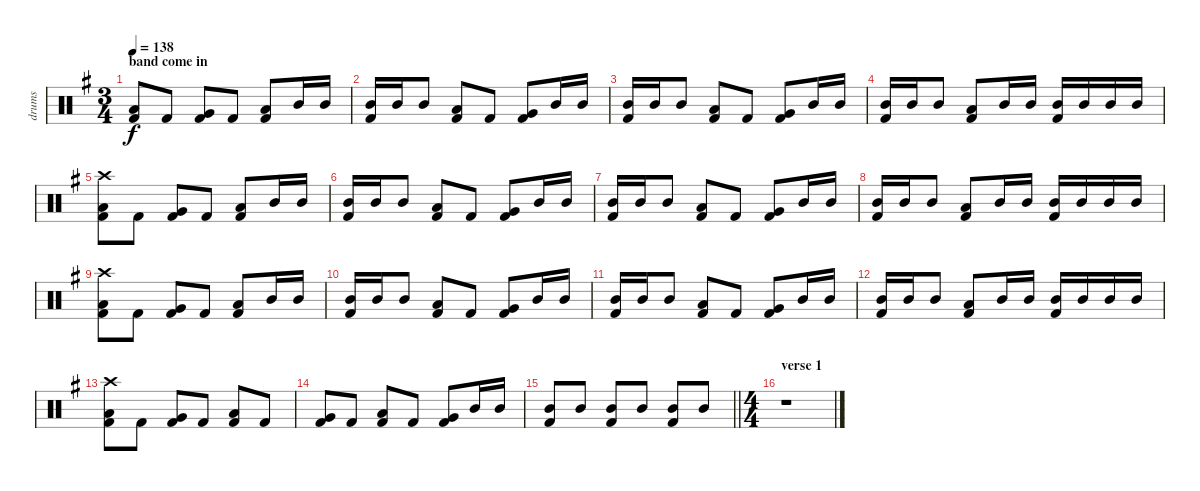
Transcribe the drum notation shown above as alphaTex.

\track ("drums" "drums") {instrument percussion}
\staff {score}
\articulation defaults
\ts (3 4)
\section ("" "band come in")
\tempo 138
\clef neutral
\ks eminor
("Low Tom (hit)" "Kick (hit) 2").8{dy f} "Kick (hit) 2".8 ("Very Low Tom (hit)" "Kick (hit) 2").8 "Kick (hit) 2".8 ("Low Tom (hit)" "Kick (hit) 2").8 "Mid Tom (hit)".16 "Mid Tom (hit)".16 |
("Mid Tom (hit)" "Kick (hit) 2").16 "Mid Tom (hit)".16 "Mid Tom (hit)".8 ("Low Tom (hit)" "Kick (hit) 2").8 "Kick (hit) 2".8 ("Very Low Tom (hit)" "Kick (hit) 2").8 "Mid Tom (hit)".16 "Mid Tom (hit)".16 |
("Mid Tom (hit)" "Kick (hit) 2").16 "Mid Tom (hit)".16 "Mid Tom (hit)".8 ("Low Tom (hit)" "Kick (hit) 2").8 "Kick (hit) 2".8 ("Very Low Tom (hit)" "Kick (hit) 2").8 "Mid Tom (hit)".16 "Mid Tom (hit)".16 |
("Mid Tom (hit)" "Kick (hit) 2").16 "Mid Tom (hit)".16 "Mid Tom (hit)".8 ("Low Tom (hit)" "Kick (hit) 2").8 "Mid Tom (hit)".16 "Mid Tom (hit)".16 ("Mid Tom (hit)" "Kick (hit) 2").16 "Mid Tom (hit)".16 "Mid Tom (hit)".16 "Mid Tom (hit)".16 |
("Crash high (hit)" "Low Tom (hit)" "Kick (hit) 2").8 "Kick (hit) 2".8 ("Very Low Tom (hit)" "Kick (hit) 2").8 "Kick (hit) 2".8 ("Low Tom (hit)" "Kick (hit) 2").8 "Mid Tom (hit)".16 "Mid Tom (hit)".16 |
("Mid Tom (hit)" "Kick (hit) 2").16 "Mid Tom (hit)".16 "Mid Tom (hit)".8 ("Low Tom (hit)" "Kick (hit) 2").8 "Kick (hit) 2".8 ("Very Low Tom (hit)" "Kick (hit) 2").8 "Mid Tom (hit)".16 "Mid Tom (hit)".16 |
("Mid Tom (hit)" "Kick (hit) 2").16 "Mid Tom (hit)".16 "Mid Tom (hit)".8 ("Low Tom (hit)" "Kick (hit) 2").8 "Kick (hit) 2".8 ("Very Low Tom (hit)" "Kick (hit) 2").8 "Mid Tom (hit)".16 "Mid Tom (hit)".16 |
("Mid Tom (hit)" "Kick (hit) 2").16 "Mid Tom (hit)".16 "Mid Tom (hit)".8 ("Low Tom (hit)" "Kick (hit) 2").8 "Mid Tom (hit)".16 "Mid Tom (hit)".16 ("Mid Tom (hit)" "Kick (hit) 2").16 "Mid Tom (hit)".16 "Mid Tom (hit)".16 "Mid Tom (hit)".16 |
("Crash high (hit)" "Low Tom (hit)" "Kick (hit) 2").8 "Kick (hit) 2".8 ("Very Low Tom (hit)" "Kick (hit) 2").8 "Kick (hit) 2".8 ("Low Tom (hit)" "Kick (hit) 2").8 "Mid Tom (hit)".16 "Mid Tom (hit)".16 |
("Mid Tom (hit)" "Kick (hit) 2").16 "Mid Tom (hit)".16 "Mid Tom (hit)".8 ("Low Tom (hit)" "Kick (hit) 2").8 "Kick (hit) 2".8 ("Very Low Tom (hit)" "Kick (hit) 2").8 "Mid Tom (hit)".16 "Mid Tom (hit)".16 |
("Mid Tom (hit)" "Kick (hit) 2").16 "Mid Tom (hit)".16 "Mid Tom (hit)".8 ("Low Tom (hit)" "Kick (hit) 2").8 "Kick (hit) 2".8 ("Very Low Tom (hit)" "Kick (hit) 2").8 "Mid Tom (hit)".16 "Mid Tom (hit)".16 |
("Mid Tom (hit)" "Kick (hit) 2").16 "Mid Tom (hit)".16 "Mid Tom (hit)".8 ("Low Tom (hit)" "Kick (hit) 2").8 "Mid Tom (hit)".16 "Mid Tom (hit)".16 ("Mid Tom (hit)" "Kick (hit) 2").16 "Mid Tom (hit)".16 "Mid Tom (hit)".16 "Mid Tom (hit)".16 |
("Crash high (hit)" "Low Tom (hit)" "Kick (hit) 2").8 "Kick (hit) 2".8 ("Very Low Tom (hit)" "Kick (hit) 2").8 "Kick (hit) 2".8 ("Low Tom (hit)" "Kick (hit) 2").8 "Kick (hit) 2".8 |
("Very Low Tom (hit)" "Kick (hit) 2").8 "Kick (hit) 2".8 ("Low Tom (hit)" "Kick (hit) 2").8 "Kick (hit) 2".8 ("Very Low Tom (hit)" "Kick (hit) 2").8 "Mid Tom (hit)".16 "Mid Tom (hit)".16 |
\barLineRight lightlight
("Mid Tom (hit)" "Kick (hit) 2").8 "Mid Tom (hit)".8 ("Mid Tom (hit)" "Kick (hit) 2").8 "Mid Tom (hit)".8 ("Mid Tom (hit)" "Kick (hit) 2").8 "Mid Tom (hit)".8 |
\ts (4 4)
\section ("" "verse 1")
r.1
